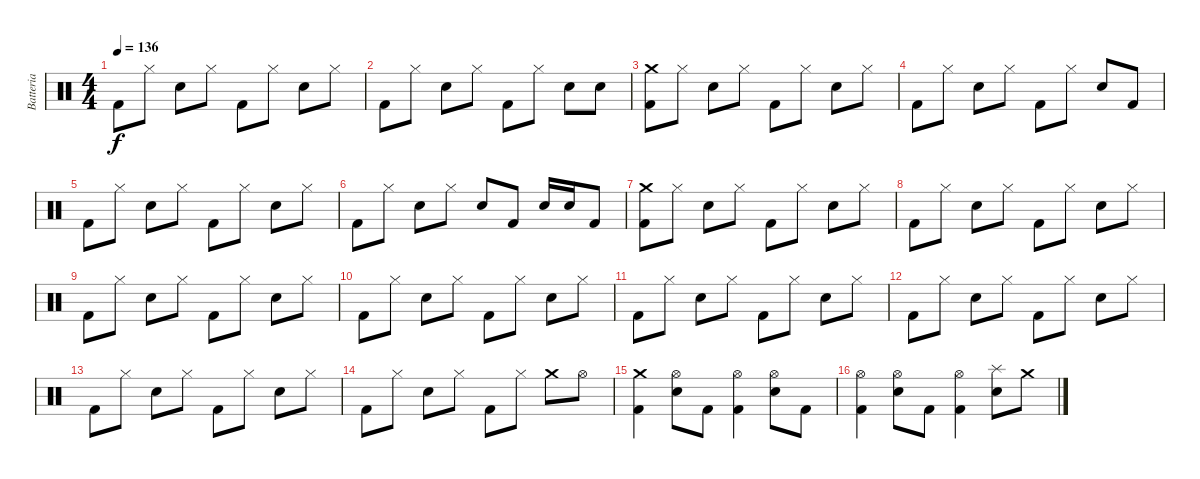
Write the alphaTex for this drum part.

\track ("Batteria" "Batteria") {instrument percussion}
\staff {score}
\articulation defaults
\ts (4 4)
\tempo 136
\clef neutral
\ks c "Kick (hit) 2".8{dy f} "Hi-Hat (closed)".8 "Electric Snare (hit)".8 "Hi-Hat (closed)".8 "Kick (hit) 2".8 "Hi-Hat (closed)".8 "Electric Snare (hit)".8 "Hi-Hat (closed)".8
|
"Kick (hit) 2".8 "Hi-Hat (closed)".8 "Electric Snare (hit)".8 "Hi-Hat (closed)".8 "Kick (hit) 2".8 "Hi-Hat (closed)".8 "Electric Snare (hit)".8 "Electric Snare (hit)".8 |
("Crash medium (hit)" "Kick (hit) 2").8 "Hi-Hat (closed)".8 "Electric Snare (hit)".8 "Hi-Hat (closed)".8 "Kick (hit) 2".8 "Hi-Hat (closed)".8 "Electric Snare (hit)".8 "Hi-Hat (closed)".8 |
"Kick (hit) 2".8 "Hi-Hat (closed)".8 "Electric Snare (hit)".8 "Hi-Hat (closed)".8 "Kick (hit) 2".8 "Hi-Hat (closed)".8 "Electric Snare (hit)".8 "Kick (hit) 2".8 |
"Kick (hit) 2".8 "Hi-Hat (closed)".8 "Electric Snare (hit)".8 "Hi-Hat (closed)".8 "Kick (hit) 2".8 "Hi-Hat (closed)".8 "Electric Snare (hit)".8 "Hi-Hat (closed)".8 |
"Kick (hit) 2".8 "Hi-Hat (closed)".8 "Electric Snare (hit)".8 "Hi-Hat (closed)".8 "Electric Snare (hit)".8 "Kick (hit) 2".8 "Electric Snare (hit)".16 "Electric Snare (hit)".16 "Kick (hit) 2".8 |
("Crash medium (hit)" "Kick (hit) 2").8 "Hi-Hat (closed)".8 "Electric Snare (hit)".8 "Hi-Hat (closed)".8 "Kick (hit) 2".8 "Hi-Hat (closed)".8 "Electric Snare (hit)".8 "Hi-Hat (closed)".8 |
"Kick (hit) 2".8 "Hi-Hat (closed)".8 "Electric Snare (hit)".8 "Hi-Hat (closed)".8 "Kick (hit) 2".8 "Hi-Hat (closed)".8 "Electric Snare (hit)".8 "Hi-Hat (closed)".8 |
"Kick (hit) 2".8 "Hi-Hat (closed)".8 "Electric Snare (hit)".8 "Hi-Hat (closed)".8 "Kick (hit) 2".8 "Hi-Hat (closed)".8 "Electric Snare (hit)".8 "Hi-Hat (closed)".8 |
"Kick (hit) 2".8 "Hi-Hat (closed)".8 "Electric Snare (hit)".8 "Hi-Hat (closed)".8 "Kick (hit) 2".8 "Hi-Hat (closed)".8 "Electric Snare (hit)".8 "Hi-Hat (closed)".8 |
"Kick (hit) 2".8 "Hi-Hat (closed)".8 "Electric Snare (hit)".8 "Hi-Hat (closed)".8 "Kick (hit) 2".8 "Hi-Hat (closed)".8 "Electric Snare (hit)".8 "Hi-Hat (closed)".8 |
"Kick (hit) 2".8 "Hi-Hat (closed)".8 "Electric Snare (hit)".8 "Hi-Hat (closed)".8 "Kick (hit) 2".8 "Hi-Hat (closed)".8 "Electric Snare (hit)".8 "Hi-Hat (closed)".8 |
"Kick (hit) 2".8 "Hi-Hat (closed)".8 "Electric Snare (hit)".8 "Hi-Hat (closed)".8 "Kick (hit) 2".8 "Hi-Hat (closed)".8 "Electric Snare (hit)".8 "Hi-Hat (closed)".8 |
"Kick (hit) 2".8 "Hi-Hat (closed)".8 "Electric Snare (hit)".8 "Hi-Hat (closed)".8 "Kick (hit) 2".8 "Hi-Hat (closed)".8 "Crash medium (hit)".8 "Hi-Hat (open)".8 |
("Crash medium (hit)" "Kick (hit) 2").4 ("Hi-Hat (open)" "Electric Snare (hit)").8 "Kick (hit) 2".8 ("Hi-Hat (open)" "Kick (hit) 2").4 ("Hi-Hat (open)" "Electric Snare (hit)").8 "Kick (hit) 2".8 |
("Hi-Hat (open)" "Kick (hit) 2").4 ("Hi-Hat (open)" "Electric Snare (hit)").8 "Kick (hit) 2".8 ("Hi-Hat (open)" "Kick (hit) 2").4 ("Splash (hit)" "Electric Snare (hit)").8 "Crash medium (hit)".8
